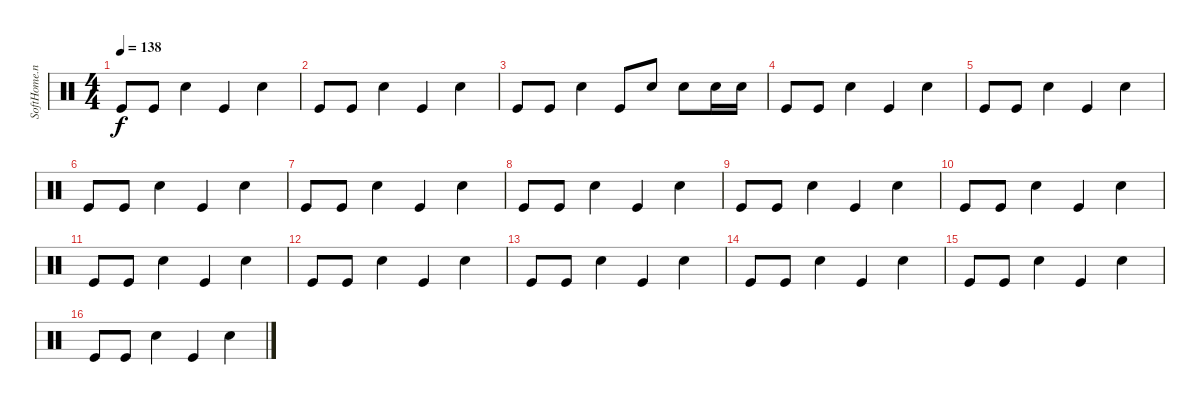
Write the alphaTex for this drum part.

\track ("SoftHome.net" "SoftHome.n") {instrument percussion}
\staff {score}
\articulation defaults
\ts (4 4)
\tempo 138
\clef neutral
\ks c "Kick (hit)".8{dy f} "Kick (hit)".8 "Snare (hit) 2".4 "Kick (hit)".4 "Snare (hit) 2".4
|
"Kick (hit)".8 "Kick (hit)".8 "Snare (hit) 2".4 "Kick (hit)".4 "Snare (hit) 2".4 |
"Kick (hit)".8 "Kick (hit)".8 "Snare (hit) 2".4 "Kick (hit)".8 "Snare (hit) 2".8 "Snare (hit) 2".8 "Snare (hit) 2".16 "Snare (hit) 2".16 |
"Kick (hit)".8 "Kick (hit)".8 "Snare (hit) 2".4 "Kick (hit)".4 "Snare (hit) 2".4 |
"Kick (hit)".8 "Kick (hit)".8 "Snare (hit) 2".4 "Kick (hit)".4 "Snare (hit) 2".4 |
"Kick (hit)".8 "Kick (hit)".8 "Snare (hit) 2".4 "Kick (hit)".4 "Snare (hit) 2".4 |
"Kick (hit)".8 "Kick (hit)".8 "Snare (hit) 2".4 "Kick (hit)".4 "Snare (hit) 2".4 |
"Kick (hit)".8 "Kick (hit)".8 "Snare (hit) 2".4 "Kick (hit)".4 "Snare (hit) 2".4 |
"Kick (hit)".8 "Kick (hit)".8 "Snare (hit) 2".4 "Kick (hit)".4 "Snare (hit) 2".4 |
"Kick (hit)".8 "Kick (hit)".8 "Snare (hit) 2".4 "Kick (hit)".4 "Snare (hit) 2".4 |
"Kick (hit)".8 "Kick (hit)".8 "Snare (hit) 2".4 "Kick (hit)".4 "Snare (hit) 2".4 |
"Kick (hit)".8 "Kick (hit)".8 "Snare (hit) 2".4 "Kick (hit)".4 "Snare (hit) 2".4 |
"Kick (hit)".8 "Kick (hit)".8 "Snare (hit) 2".4 "Kick (hit)".4 "Snare (hit) 2".4 |
"Kick (hit)".8 "Kick (hit)".8 "Snare (hit) 2".4 "Kick (hit)".4 "Snare (hit) 2".4 |
"Kick (hit)".8 "Kick (hit)".8 "Snare (hit) 2".4 "Kick (hit)".4 "Snare (hit) 2".4 |
"Kick (hit)".8 "Kick (hit)".8 "Snare (hit) 2".4 "Kick (hit)".4 "Snare (hit) 2".4
